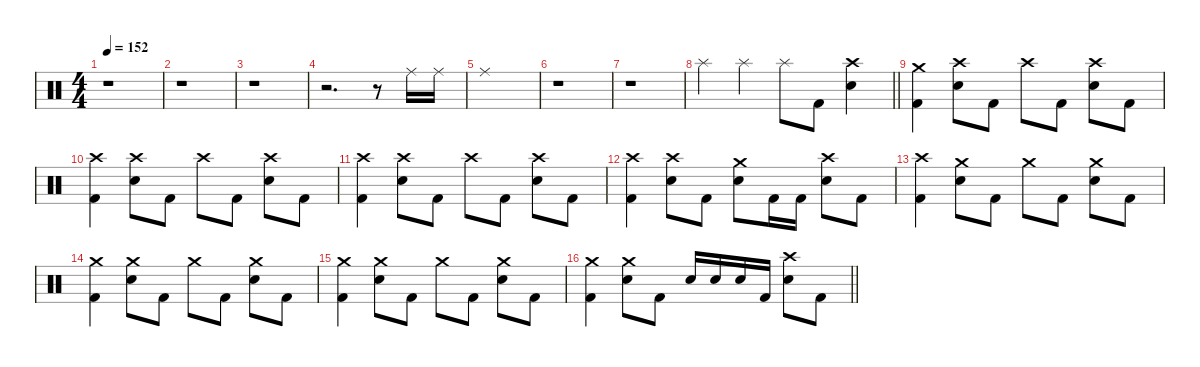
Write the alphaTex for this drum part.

\defaultSystemsLayout 4
\hideDynamics
\bracketExtendMode nobrackets
\singleTrackTrackNamePolicy hidden
\multiTrackTrackNamePolicy hidden
\firstSystemTrackNameMode fullname
\firstSystemTrackNameOrientation horizontal
\otherSystemsTrackNameOrientation horizontal
\track ("Percussion" "drm.") {defaultSystemsLayout 4 instrument percussion}
\staff {score}
\articulation defaults
\ts (4 4)
\beaming (8 2 2 2 2)
\tempo 152
\clef neutral
\ks c
r.1{dy f beam Down} |
r.1{beam Down} |
r.1{beam Down} |
r.2{d beam Down} r.8{beam Down} "Ride (middle)".16{beam Down} "Ride (middle)".16{beam Down} |
"Ride (middle)".1{beam Down} |
r.1{beam Down} |
r.1{beam Down} |
\barLineRight lightlight "Splash (hit)".4{beam Down} "Splash (hit)".4{beam Down} "Splash (hit)".8{beam Down} "Kick (hit) 2".8{beam Down}
("Crash high (hit)" "Snare (hit) 2").4{beam Down} |
("Crash medium (hit)" "Kick (hit) 2").4{beam Down} ("Crash high (hit)" "Snare (hit) 2").8{beam Down} "Kick (hit) 2".8{beam Down} "Crash high (hit)".8{beam Down} "Kick (hit) 2".8{beam Down} ("Crash high (hit)" "Snare (hit) 2").8{beam Down} "Kick (hit) 2".8{beam Down} |
("Crash high (hit)" "Kick (hit) 2").4{beam Down} ("Crash high (hit)" "Snare (hit) 2").8{beam Down} "Kick (hit) 2".8{beam Down} "Crash high (hit)".8{beam Down} "Kick (hit) 2".8{beam Down} ("Crash high (hit)" "Snare (hit) 2").8{beam Down} "Kick (hit) 2".8{beam Down} |
("Crash high (hit)" "Kick (hit) 2").4{beam Down} ("Crash high (hit)" "Snare (hit) 2").8{beam Down} "Kick (hit) 2".8{beam Down} "Crash high (hit)".8{beam Down} "Kick (hit) 2".8{beam Down} ("Crash high (hit)" "Snare (hit) 2").8{beam Down} "Kick (hit) 2".8{beam Down} |
("Crash high (hit)" "Kick (hit) 2").4{beam Down} ("Crash high (hit)" "Snare (hit) 2").8{beam Down} "Kick (hit) 2".8{beam Down} ("Crash medium (hit)" "Snare (hit) 2").8{beam Down} "Kick (hit) 2".16{beam Down} "Kick (hit) 2".16{beam Down} ("Crash high (hit)" "Snare (hit) 2").8{beam Down} "Kick (hit) 2".8{beam Down} |
("Crash high (hit)" "Kick (hit) 2").4{beam Down} ("Crash medium (hit)" "Snare (hit) 2").8{beam Down} "Kick (hit) 2".8{beam Down} "Crash medium (hit)".8{beam Down} "Kick (hit) 2".8{beam Down} ("Crash medium (hit)" "Snare (hit) 2").8{beam Down} "Kick (hit) 2".8{beam Down} |
("Crash medium (hit)" "Kick (hit) 2").4{beam Down} ("Crash medium (hit)" "Snare (hit) 2").8{beam Down} "Kick (hit) 2".8{beam Down} "Crash medium (hit)".8{beam Down} "Kick (hit) 2".8{beam Down} ("Crash medium (hit)" "Snare (hit) 2").8{beam Down} "Kick (hit) 2".8{beam Down} |
("Crash medium (hit)" "Kick (hit) 2").4{beam Down} ("Crash medium (hit)" "Snare (hit) 2").8{beam Down} "Kick (hit) 2".8{beam Down} "Crash medium (hit)".8{beam Down} "Kick (hit) 2".8{beam Down} ("Crash medium (hit)" "Snare (hit) 2").8{beam Down} "Kick (hit) 2".8{beam Down} |
\barLineRight lightlight
("Crash medium (hit)" "Kick (hit) 2").4{beam Down} ("Crash medium (hit)" "Snare (hit) 2").8{beam Down} "Kick (hit) 2".8{beam Down} "Snare (hit) 2".16{beam Up} "Snare (hit) 2".16{beam Up} "Snare (hit) 2".16{beam Up} "Kick (hit) 2".16{beam Up} ("Crash high (hit)" "Snare (hit) 2").8{beam Down} "Kick (hit) 2".8{beam Down}
